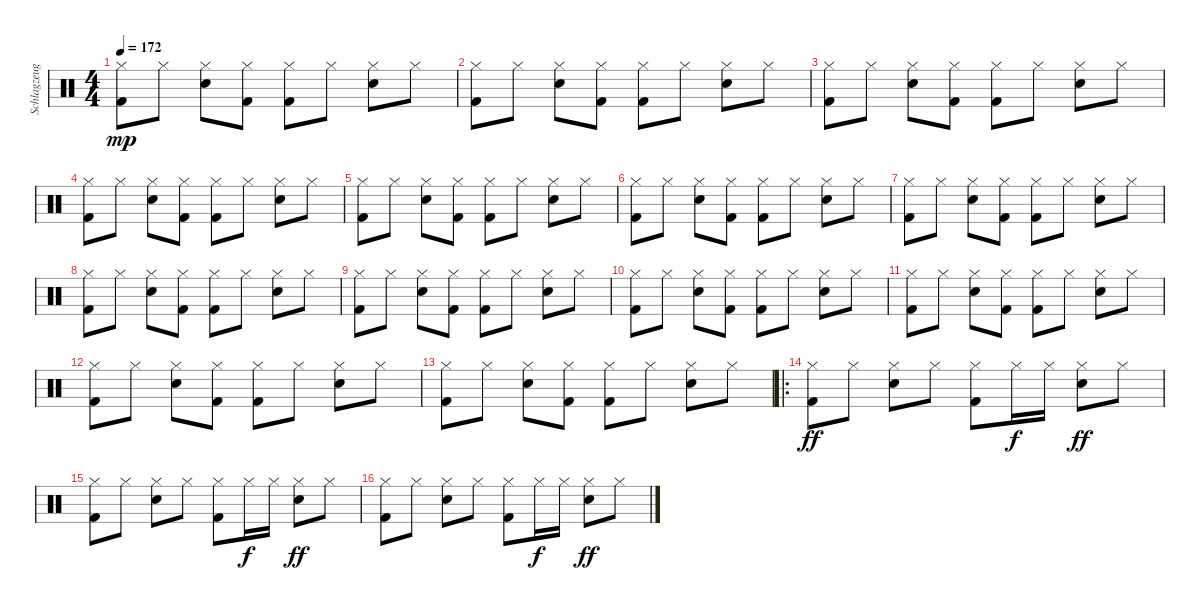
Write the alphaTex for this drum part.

\track ("Schlagzeug" "Schlagzeug") {instrument percussion}
\staff {score}
\articulation defaults
\ts (4 4)
\tempo 172
\clef neutral
\ks c
("Hi-Hat (closed)" "Kick (hit) 2").8{dy mp} "Hi-Hat (closed)".8 ("Hi-Hat (closed)" "Electric Snare (hit)").8 ("Hi-Hat (closed)" "Kick (hit) 2").8 ("Hi-Hat (closed)" "Kick (hit) 2").8 "Hi-Hat (closed)".8 ("Hi-Hat (closed)" "Electric Snare (hit)").8 "Hi-Hat (closed)".8 |
("Hi-Hat (closed)" "Kick (hit) 2").8 "Hi-Hat (closed)".8 ("Hi-Hat (closed)" "Electric Snare (hit)").8 ("Hi-Hat (closed)" "Kick (hit) 2").8 ("Hi-Hat (closed)" "Kick (hit) 2").8 "Hi-Hat (closed)".8 ("Hi-Hat (closed)" "Electric Snare (hit)").8 "Hi-Hat (closed)".8 |
("Hi-Hat (closed)" "Kick (hit) 2").8 "Hi-Hat (closed)".8 ("Hi-Hat (closed)" "Electric Snare (hit)").8 ("Hi-Hat (closed)" "Kick (hit) 2").8 ("Hi-Hat (closed)" "Kick (hit) 2").8 "Hi-Hat (closed)".8 ("Hi-Hat (closed)" "Electric Snare (hit)").8 "Hi-Hat (closed)".8 |
("Hi-Hat (closed)" "Kick (hit) 2").8 "Hi-Hat (closed)".8 ("Hi-Hat (closed)" "Electric Snare (hit)").8 ("Hi-Hat (closed)" "Kick (hit) 2").8 ("Hi-Hat (closed)" "Kick (hit) 2").8 "Hi-Hat (closed)".8 ("Hi-Hat (closed)" "Electric Snare (hit)").8 "Hi-Hat (closed)".8 |
("Hi-Hat (closed)" "Kick (hit) 2").8 "Hi-Hat (closed)".8 ("Hi-Hat (closed)" "Electric Snare (hit)").8 ("Hi-Hat (closed)" "Kick (hit) 2").8 ("Hi-Hat (closed)" "Kick (hit) 2").8 "Hi-Hat (closed)".8 ("Hi-Hat (closed)" "Electric Snare (hit)").8 "Hi-Hat (closed)".8 |
("Hi-Hat (closed)" "Kick (hit) 2").8 "Hi-Hat (closed)".8 ("Hi-Hat (closed)" "Electric Snare (hit)").8 ("Hi-Hat (closed)" "Kick (hit) 2").8 ("Hi-Hat (closed)" "Kick (hit) 2").8 "Hi-Hat (closed)".8 ("Hi-Hat (closed)" "Electric Snare (hit)").8 "Hi-Hat (closed)".8 |
("Hi-Hat (closed)" "Kick (hit) 2").8 "Hi-Hat (closed)".8 ("Hi-Hat (closed)" "Electric Snare (hit)").8 ("Hi-Hat (closed)" "Kick (hit) 2").8 ("Hi-Hat (closed)" "Kick (hit) 2").8 "Hi-Hat (closed)".8 ("Hi-Hat (closed)" "Electric Snare (hit)").8 "Hi-Hat (closed)".8 |
("Hi-Hat (closed)" "Kick (hit) 2").8 "Hi-Hat (closed)".8 ("Hi-Hat (closed)" "Electric Snare (hit)").8 ("Hi-Hat (closed)" "Kick (hit) 2").8 ("Hi-Hat (closed)" "Kick (hit) 2").8 "Hi-Hat (closed)".8 ("Hi-Hat (closed)" "Electric Snare (hit)").8 "Hi-Hat (closed)".8 |
("Hi-Hat (closed)" "Kick (hit) 2").8 "Hi-Hat (closed)".8 ("Hi-Hat (closed)" "Electric Snare (hit)").8 ("Hi-Hat (closed)" "Kick (hit) 2").8 ("Hi-Hat (closed)" "Kick (hit) 2").8 "Hi-Hat (closed)".8 ("Hi-Hat (closed)" "Electric Snare (hit)").8 "Hi-Hat (closed)".8 |
("Hi-Hat (closed)" "Kick (hit) 2").8 "Hi-Hat (closed)".8 ("Hi-Hat (closed)" "Electric Snare (hit)").8 ("Hi-Hat (closed)" "Kick (hit) 2").8 ("Hi-Hat (closed)" "Kick (hit) 2").8 "Hi-Hat (closed)".8 ("Hi-Hat (closed)" "Electric Snare (hit)").8 "Hi-Hat (closed)".8 |
("Hi-Hat (closed)" "Kick (hit) 2").8 "Hi-Hat (closed)".8 ("Hi-Hat (closed)" "Electric Snare (hit)").8 ("Hi-Hat (closed)" "Kick (hit) 2").8 ("Hi-Hat (closed)" "Kick (hit) 2").8 "Hi-Hat (closed)".8 ("Hi-Hat (closed)" "Electric Snare (hit)").8 "Hi-Hat (closed)".8 |
("Hi-Hat (closed)" "Kick (hit) 2").8 "Hi-Hat (closed)".8 ("Hi-Hat (closed)" "Electric Snare (hit)").8 ("Hi-Hat (closed)" "Kick (hit) 2").8 ("Hi-Hat (closed)" "Kick (hit) 2").8 "Hi-Hat (closed)".8 ("Hi-Hat (closed)" "Electric Snare (hit)").8 "Hi-Hat (closed)".8 |
("Hi-Hat (closed)" "Kick (hit) 2").8 "Hi-Hat (closed)".8 ("Hi-Hat (closed)" "Electric Snare (hit)").8 ("Hi-Hat (closed)" "Kick (hit) 2").8 ("Hi-Hat (closed)" "Kick (hit) 2").8 "Hi-Hat (closed)".8 ("Hi-Hat (closed)" "Electric Snare (hit)").8 "Hi-Hat (closed)".8 |
\ro
("Hi-Hat (closed)" "Kick (hit) 2").8{dy ff} "Hi-Hat (closed)".8 ("Hi-Hat (closed)" "Electric Snare (hit)").8 "Hi-Hat (closed)".8 ("Hi-Hat (closed)" "Kick (hit) 2").8 "Hi-Hat (closed)".16{dy f} "Hi-Hat (closed)".16 ("Hi-Hat (closed)" "Electric Snare (hit)").8{dy ff} "Hi-Hat (closed)".8 |
("Hi-Hat (closed)" "Kick (hit) 2").8 "Hi-Hat (closed)".8 ("Hi-Hat (closed)" "Electric Snare (hit)").8 "Hi-Hat (closed)".8 ("Hi-Hat (closed)" "Kick (hit) 2").8 "Hi-Hat (closed)".16{dy f} "Hi-Hat (closed)".16 ("Hi-Hat (closed)" "Electric Snare (hit)").8{dy ff} "Hi-Hat (closed)".8 |
("Hi-Hat (closed)" "Kick (hit) 2").8 "Hi-Hat (closed)".8 ("Hi-Hat (closed)" "Electric Snare (hit)").8 "Hi-Hat (closed)".8 ("Hi-Hat (closed)" "Kick (hit) 2").8 "Hi-Hat (closed)".16{dy f} "Hi-Hat (closed)".16 ("Hi-Hat (closed)" "Electric Snare (hit)").8{dy ff} "Hi-Hat (closed)".8
